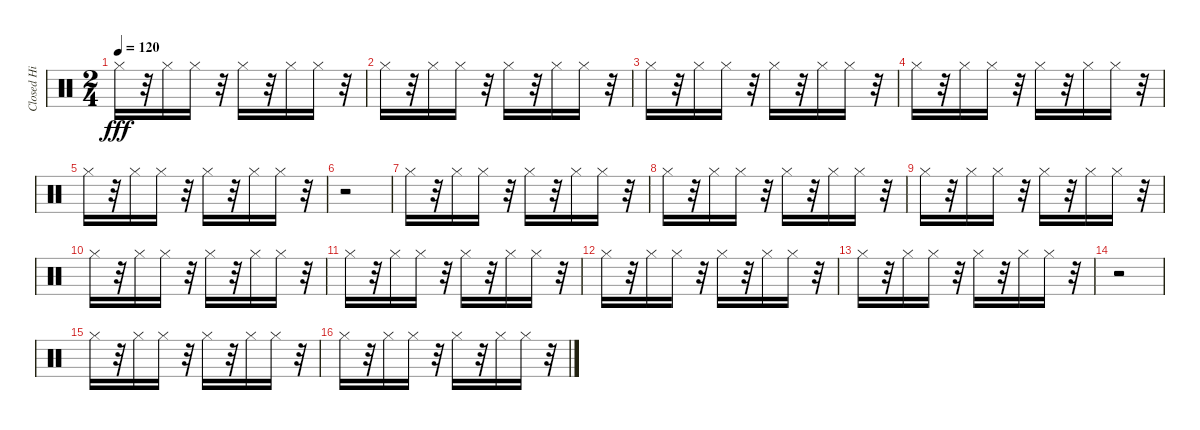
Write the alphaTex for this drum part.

\track ("Closed Hi Hat (1) (1) (1) (1)" "Closed Hi ") {instrument percussion}
\staff {score}
\articulation defaults
\ts (2 4)
\tempo 120
\clef neutral
\ks c "Hi-Hat (closed)".16{dy fff}
r.32 "Hi-Hat (closed)".16 "Hi-Hat (closed)".16 r.32 "Hi-Hat (closed)".16 r.32 "Hi-Hat (closed)".16 "Hi-Hat (closed)".16 r.32 |
"Hi-Hat (closed)".16 r.32 "Hi-Hat (closed)".16 "Hi-Hat (closed)".16 r.32 "Hi-Hat (closed)".16 r.32 "Hi-Hat (closed)".16 "Hi-Hat (closed)".16 r.32 |
"Hi-Hat (closed)".16 r.32 "Hi-Hat (closed)".16 "Hi-Hat (closed)".16 r.32 "Hi-Hat (closed)".16 r.32 "Hi-Hat (closed)".16 "Hi-Hat (closed)".16 r.32 |
"Hi-Hat (closed)".16 r.32 "Hi-Hat (closed)".16 "Hi-Hat (closed)".16 r.32 "Hi-Hat (closed)".16 r.32 "Hi-Hat (closed)".16 "Hi-Hat (closed)".16 r.32 |
"Hi-Hat (closed)".16 r.32 "Hi-Hat (closed)".16 "Hi-Hat (closed)".16 r.32 "Hi-Hat (closed)".16 r.32 "Hi-Hat (closed)".16 "Hi-Hat (closed)".16 r.32 |
r.2 |
"Hi-Hat (closed)".16 r.32 "Hi-Hat (closed)".16 "Hi-Hat (closed)".16 r.32 "Hi-Hat (closed)".16 r.32 "Hi-Hat (closed)".16 "Hi-Hat (closed)".16 r.32 |
"Hi-Hat (closed)".16 r.32 "Hi-Hat (closed)".16 "Hi-Hat (closed)".16 r.32 "Hi-Hat (closed)".16 r.32 "Hi-Hat (closed)".16 "Hi-Hat (closed)".16 r.32 |
"Hi-Hat (closed)".16 r.32 "Hi-Hat (closed)".16 "Hi-Hat (closed)".16 r.32 "Hi-Hat (closed)".16 r.32 "Hi-Hat (closed)".16 "Hi-Hat (closed)".16 r.32 |
"Hi-Hat (closed)".16 r.32 "Hi-Hat (closed)".16 "Hi-Hat (closed)".16 r.32 "Hi-Hat (closed)".16 r.32 "Hi-Hat (closed)".16 "Hi-Hat (closed)".16 r.32 |
"Hi-Hat (closed)".16 r.32 "Hi-Hat (closed)".16 "Hi-Hat (closed)".16 r.32 "Hi-Hat (closed)".16 r.32 "Hi-Hat (closed)".16 "Hi-Hat (closed)".16 r.32 |
"Hi-Hat (closed)".16 r.32 "Hi-Hat (closed)".16 "Hi-Hat (closed)".16 r.32 "Hi-Hat (closed)".16 r.32 "Hi-Hat (closed)".16 "Hi-Hat (closed)".16 r.32 |
"Hi-Hat (closed)".16 r.32 "Hi-Hat (closed)".16 "Hi-Hat (closed)".16 r.32 "Hi-Hat (closed)".16 r.32 "Hi-Hat (closed)".16 "Hi-Hat (closed)".16 r.32 |
r.2 |
"Hi-Hat (closed)".16 r.32 "Hi-Hat (closed)".16 "Hi-Hat (closed)".16 r.32 "Hi-Hat (closed)".16 r.32 "Hi-Hat (closed)".16 "Hi-Hat (closed)".16 r.32 |
"Hi-Hat (closed)".16 r.32 "Hi-Hat (closed)".16 "Hi-Hat (closed)".16 r.32 "Hi-Hat (closed)".16 r.32 "Hi-Hat (closed)".16 "Hi-Hat (closed)".16 r.32
